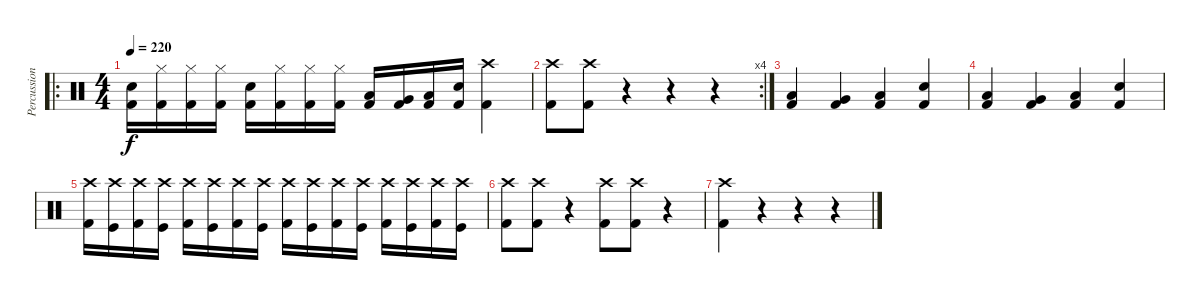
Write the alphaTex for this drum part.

\track ("Percussion" "Percussion") {instrument percussion}
\staff {score}
\articulation defaults
\ro
\ts (4 4)
\tempo 220
\clef neutral
\ks c
("Electric Snare (hit)" "Kick (hit) 2").16{dy f} ("Hi-Hat (closed)" "Kick (hit) 2").16 ("Hi-Hat (closed)" "Kick (hit) 2").16 ("Hi-Hat (closed)" "Kick (hit) 2").16 ("Electric Snare (hit)" "Kick (hit) 2").16 ("Hi-Hat (closed)" "Kick (hit) 2").16 ("Hi-Hat (closed)" "Kick (hit) 2").16 ("Hi-Hat (closed)" "Kick (hit) 2").16 ("Low Tom (hit)" "Kick (hit) 2").16 ("Very Low Tom (hit)" "Kick (hit) 2").16 ("Low Floor Tom (hit)" "Kick (hit) 2").16 ("Electric Snare (hit)" "Kick (hit) 2").16 ("Crash high (hit)" "Kick (hit) 2").4 |
\rc 4
("Crash high (hit)" "Kick (hit) 2").8 ("Crash high (hit)" "Kick (hit) 2").8 r.4 r.4 r.4 |
("Low Tom (hit)" "Kick (hit) 2").4 ("Very Low Tom (hit)" "Kick (hit) 2").4 ("Low Floor Tom (hit)" "Kick (hit) 2").4 ("Electric Snare (hit)" "Kick (hit) 2").4 |
("Low Tom (hit)" "Kick (hit) 2").4 ("Very Low Tom (hit)" "Kick (hit) 2").4 ("Low Floor Tom (hit)" "Kick (hit) 2").4 ("Electric Snare (hit)" "Kick (hit) 2").4 |
("Crash high (hit)" "Kick (hit) 2").16 ("Crash high (hit)" "Kick (hit)").16 ("Crash high (hit)" "Kick (hit) 2").16 ("Crash high (hit)" "Kick (hit)").16 ("Crash high (hit)" "Kick (hit) 2").16 ("Crash high (hit)" "Kick (hit)").16 ("Crash high (hit)" "Kick (hit) 2").16 ("Crash high (hit)" "Kick (hit)").16 ("Crash high (hit)" "Kick (hit) 2").16 ("Crash high (hit)" "Kick (hit)").16 ("Crash high (hit)" "Kick (hit) 2").16 ("Crash high (hit)" "Kick (hit)").16 ("Crash high (hit)" "Kick (hit) 2").16 ("Crash high (hit)" "Kick (hit)").16 ("Crash high (hit)" "Kick (hit) 2").16 ("Crash high (hit)" "Kick (hit)").16 |
("Crash high (hit)" "Kick (hit) 2").8 ("Crash high (hit)" "Kick (hit) 2").8 r.4 ("Crash high (hit)" "Kick (hit) 2").8 ("Crash high (hit)" "Kick (hit) 2").8 r.4 |
("Crash high (hit)" "Kick (hit) 2").4 r.4 r.4 r.4
